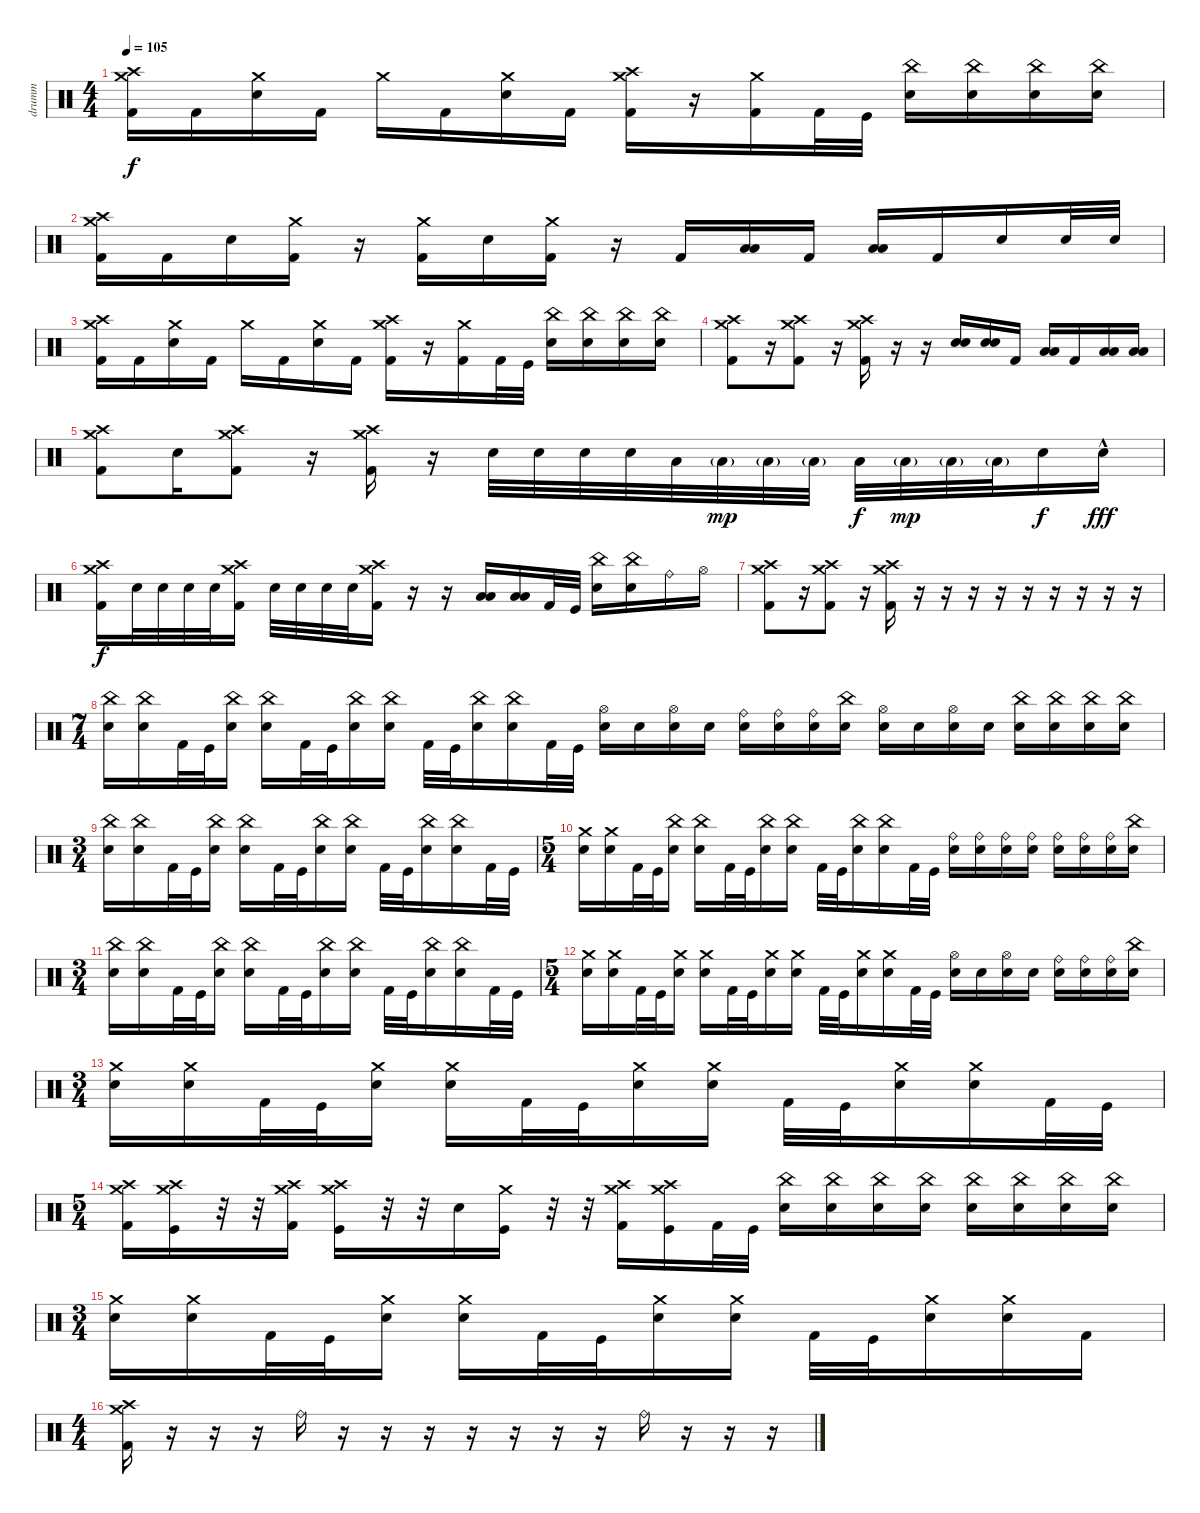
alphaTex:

\track ("drumm" "drumm") {instrument percussion}
\staff
\articulation defaults
\ts (4 4)
\tempo 105
\clef neutral
\ks c
("Kick (hit) 2" "Crash medium (hit)" "Crash high (hit)").16{dy f} "Kick (hit) 2".16 ("Electric Snare (hit)" "Crash medium (hit)").16 "Kick (hit) 2".16 "Crash medium (hit)".16 "Kick (hit) 2".16 ("Electric Snare (hit)" "Crash medium (hit)").16 "Kick (hit) 2".16 ("Kick (hit) 2" "Crash medium (hit)" "Crash high (hit)").16 r.16 ("Kick (hit) 2" "Crash medium (hit)").16 "Kick (hit) 2".32 "Kick (hit)".32 ("Electric Snare (hit)" "China (hit)").16 ("Electric Snare (hit)" "China (hit)").16 ("Electric Snare (hit)" "China (hit)").16 ("Electric Snare (hit)" "China (hit)").16 |
("Kick (hit) 2" "Crash medium (hit)" "Crash high (hit)").16 "Kick (hit) 2".16 "Electric Snare (hit)".16 ("Kick (hit) 2" "Crash medium (hit)").16 r.16 ("Kick (hit) 2" "Crash medium (hit)").16 "Electric Snare (hit)".16 ("Kick (hit) 2" "Crash medium (hit)").16 r.16 "Kick (hit) 2".16 ("Low Tom (hit)" "Low Tom (hit)").16 "Kick (hit) 2".16 ("Low Tom (hit)" "Low Floor Tom (hit)").16 "Kick (hit) 2".16 "Electric Snare (hit)".16 "Electric Snare (hit)".32 "Electric Snare (hit)".32 |
("Kick (hit) 2" "Crash medium (hit)" "Crash high (hit)").16 "Kick (hit) 2".16 ("Electric Snare (hit)" "Crash medium (hit)").16 "Kick (hit) 2".16 "Crash medium (hit)".16 "Kick (hit) 2".16 ("Electric Snare (hit)" "Crash medium (hit)").16 "Kick (hit) 2".16 ("Kick (hit) 2" "Crash medium (hit)" "Crash high (hit)").16 r.16 ("Kick (hit) 2" "Crash medium (hit)").16 "Kick (hit) 2".32 "Kick (hit)".32 ("Electric Snare (hit)" "China (hit)").16 ("Electric Snare (hit)" "China (hit)").16 ("Electric Snare (hit)" "China (hit)").16 ("Electric Snare (hit)" "China (hit)").16 |
("Kick (hit) 2" "Crash medium (hit)" "Crash high (hit)").8 r.16 ("Kick (hit) 2" "Crash medium (hit)" "Crash high (hit)").8 r.16 ("Kick (hit) 2" "Crash medium (hit)" "Crash high (hit)").16 r.16 r.16 ("Electric Snare (hit)" "Electric Snare (hit)").16 ("Electric Snare (hit)" "Electric Snare (hit)").16 "Kick (hit) 2".16 ("Low Tom (hit)" "Low Tom (hit)").16 "Kick (hit) 2".16 ("Low Tom (hit)" "Low Floor Tom (hit)").16 ("Low Tom (hit)" "Low Floor Tom (hit)").16 |
("Kick (hit) 2" "Crash medium (hit)" "Crash high (hit)").8 "Electric Snare (hit)".16 ("Kick (hit) 2" "Crash medium (hit)" "Crash high (hit)").8 r.16 ("Kick (hit) 2" "Crash medium (hit)" "Crash high (hit)").16 r.16 "Electric Snare (hit)".32 "Electric Snare (hit)".32 "Electric Snare (hit)".32 "Electric Snare (hit)".32 "Low Tom (hit)".32 "Low Tom (hit)"{g}.32{dy mp} "Low Tom (hit)"{g}.32 "Low Tom (hit)"{g}.32 "Low Floor Tom (hit)".32{dy f} "Low Floor Tom (hit)"{g}.32{dy mp} "Low Floor Tom (hit)"{g}.32 "Low Floor Tom (hit)"{g}.32 "Electric Snare (hit)".16{dy f} "Electric Snare (hit)"{hac}.16{dy fff} |
("Kick (hit) 2" "Crash medium (hit)" "Crash high (hit)").16{dy f} "Electric Snare (hit)".32 "Electric Snare (hit)".32 "Electric Snare (hit)".32 "Electric Snare (hit)".32 ("Kick (hit) 2" "Crash medium (hit)" "Crash high (hit)").16 "Electric Snare (hit)".32 "Electric Snare (hit)".32 "Electric Snare (hit)".32 "Electric Snare (hit)".32 ("Kick (hit) 2" "Crash medium (hit)" "Crash high (hit)").16 r.16 r.16 ("Low Tom (hit)" "Low Tom (hit)").16 ("Low Tom (hit)" "Low Floor Tom (hit)").16 "Kick (hit) 2".32 "Kick (hit)".32 ("Electric Snare (hit)" "China (hit)").16 ("Electric Snare (hit)" "China (hit)").16 "Ride (bell)".16 "Hi-Hat (open)".16 |
("Kick (hit) 2" "Crash medium (hit)" "Crash high (hit)").8 r.16 ("Kick (hit) 2" "Crash medium (hit)" "Crash high (hit)").8 r.16 ("Kick (hit) 2" "Crash medium (hit)" "Crash high (hit)").16 r.16 r.16 r.16 r.16 r.16 r.16 r.16 r.16 r.16 |
\ts (7 4)
("Electric Snare (hit)" "China (hit)").16 ("Electric Snare (hit)" "China (hit)").16 "Kick (hit) 2".32 "Kick (hit)".32 ("Electric Snare (hit)" "China (hit)").16 ("Electric Snare (hit)" "China (hit)").16 "Kick (hit) 2".32 "Kick (hit)".32 ("Electric Snare (hit)" "China (hit)").16 ("Electric Snare (hit)" "China (hit)").16 "Kick (hit) 2".32 "Kick (hit)".32 ("Electric Snare (hit)" "China (hit)").16 ("Electric Snare (hit)" "China (hit)").16 "Kick (hit) 2".32 "Kick (hit)".32 ("Electric Snare (hit)" "Hi-Hat (open)").16 "Electric Snare (hit)".16 ("Electric Snare (hit)" "Hi-Hat (open)").16 "Electric Snare (hit)".16 ("Electric Snare (hit)" "Ride (bell)").16 ("Electric Snare (hit)" "Ride (bell)").16 ("Electric Snare (hit)" "Ride (bell)").16 ("Electric Snare (hit)" "China (hit)").16 ("Electric Snare (hit)" "Hi-Hat (open)").16 "Electric Snare (hit)".16 ("Electric Snare (hit)" "Hi-Hat (open)").16 "Electric Snare (hit)".16 ("Electric Snare (hit)" "China (hit)").16 ("Electric Snare (hit)" "China (hit)").16 ("Electric Snare (hit)" "China (hit)").16 ("Electric Snare (hit)" "China (hit)").16 |
\ts (3 4)
("Electric Snare (hit)" "China (hit)").16 ("Electric Snare (hit)" "China (hit)").16 "Kick (hit) 2".32 "Kick (hit)".32 ("Electric Snare (hit)" "China (hit)").16 ("Electric Snare (hit)" "China (hit)").16 "Kick (hit) 2".32 "Kick (hit)".32 ("Electric Snare (hit)" "China (hit)").16 ("Electric Snare (hit)" "China (hit)").16 "Kick (hit) 2".32 "Kick (hit)".32 ("Electric Snare (hit)" "China (hit)").16 ("Electric Snare (hit)" "China (hit)").16 "Kick (hit) 2".32 "Kick (hit)".32 |
\ts (5 4)
("Electric Snare (hit)" "Crash medium (hit)").16 ("Electric Snare (hit)" "Crash medium (hit)").16 "Kick (hit) 2".32 "Kick (hit)".32 ("Electric Snare (hit)" "China (hit)").16 ("Electric Snare (hit)" "China (hit)").16 "Kick (hit) 2".32 "Kick (hit)".32 ("Electric Snare (hit)" "China (hit)").16 ("Electric Snare (hit)" "China (hit)").16 "Kick (hit) 2".32 "Kick (hit)".32 ("Electric Snare (hit)" "China (hit)").16 ("Electric Snare (hit)" "China (hit)").16 "Kick (hit) 2".32 "Kick (hit)".32 ("Electric Snare (hit)" "Ride (bell)").16 ("Electric Snare (hit)" "Ride (bell)").16 ("Electric Snare (hit)" "Ride (bell)").16 ("Electric Snare (hit)" "Ride (bell)").16 ("Electric Snare (hit)" "Ride (bell)").16 ("Electric Snare (hit)" "Ride (bell)").16 ("Electric Snare (hit)" "Ride (bell)").16 ("Electric Snare (hit)" "China (hit)").16 |
\ts (3 4)
("Electric Snare (hit)" "China (hit)").16 ("Electric Snare (hit)" "China (hit)").16 "Kick (hit) 2".32 "Kick (hit)".32 ("Electric Snare (hit)" "China (hit)").16 ("Electric Snare (hit)" "China (hit)").16 "Kick (hit) 2".32 "Kick (hit)".32 ("Electric Snare (hit)" "China (hit)").16 ("Electric Snare (hit)" "China (hit)").16 "Kick (hit) 2".32 "Kick (hit)".32 ("Electric Snare (hit)" "China (hit)").16 ("Electric Snare (hit)" "China (hit)").16 "Kick (hit) 2".32 "Kick (hit)".32 |
\ts (5 4)
("Electric Snare (hit)" "Crash medium (hit)").16 ("Electric Snare (hit)" "Crash medium (hit)").16 "Kick (hit) 2".32 "Kick (hit)".32 ("Electric Snare (hit)" "Crash medium (hit)").16 ("Electric Snare (hit)" "Crash medium (hit)").16 "Kick (hit) 2".32 "Kick (hit)".32 ("Electric Snare (hit)" "Crash medium (hit)").16 ("Electric Snare (hit)" "Crash medium (hit)").16 "Kick (hit) 2".32 "Kick (hit)".32 ("Electric Snare (hit)" "Crash medium (hit)").16 ("Electric Snare (hit)" "Crash medium (hit)").16 "Kick (hit) 2".32 "Kick (hit)".32 ("Electric Snare (hit)" "Hi-Hat (open)").16 "Electric Snare (hit)".16 ("Electric Snare (hit)" "Hi-Hat (open)").16 "Electric Snare (hit)".16 ("Electric Snare (hit)" "Ride (bell)").16 ("Electric Snare (hit)" "Ride (bell)").16 ("Electric Snare (hit)" "Ride (bell)").16 ("Electric Snare (hit)" "China (hit)").16 |
\ts (3 4)
("Electric Snare (hit)" "Crash medium (hit)").16 ("Electric Snare (hit)" "Crash medium (hit)").16 "Kick (hit) 2".32 "Kick (hit)".32 ("Electric Snare (hit)" "Crash medium (hit)").16 ("Electric Snare (hit)" "Crash medium (hit)").16 "Kick (hit) 2".32 "Kick (hit)".32 ("Electric Snare (hit)" "Crash medium (hit)").16 ("Electric Snare (hit)" "Crash medium (hit)").16 "Kick (hit) 2".32 "Kick (hit)".32 ("Electric Snare (hit)" "Crash medium (hit)").16 ("Electric Snare (hit)" "Crash medium (hit)").16 "Kick (hit) 2".32 "Kick (hit)".32 |
\ts (5 4)
("Kick (hit) 2" "Crash medium (hit)" "Crash high (hit)").16 ("Kick (hit)" "Crash medium (hit)" "Crash high (hit)").16 r.32 r.32 ("Kick (hit) 2" "Crash medium (hit)" "Crash high (hit)").16 ("Kick (hit)" "Crash medium (hit)" "Crash high (hit)").16 r.32 r.32 "Electric Snare (hit)".16 ("Kick (hit)" "Crash medium (hit)").16 r.32 r.32 ("Kick (hit) 2" "Crash medium (hit)" "Crash high (hit)").16 ("Kick (hit)" "Crash medium (hit)" "Crash high (hit)").16 "Kick (hit) 2".32 "Kick (hit)".32 ("Electric Snare (hit)" "China (hit)").16 ("Electric Snare (hit)" "China (hit)").16 ("Electric Snare (hit)" "China (hit)").16 ("Electric Snare (hit)" "China (hit)").16 ("Electric Snare (hit)" "China (hit)").16 ("Electric Snare (hit)" "China (hit)").16 ("Electric Snare (hit)" "China (hit)").16 ("Electric Snare (hit)" "China (hit)").16 |
\ts (3 4)
("Electric Snare (hit)" "Crash medium (hit)").16 ("Electric Snare (hit)" "Crash medium (hit)").16 "Kick (hit) 2".32 "Kick (hit)".32 ("Electric Snare (hit)" "Crash medium (hit)").16 ("Electric Snare (hit)" "Crash medium (hit)").16 "Kick (hit) 2".32 "Kick (hit)".32 ("Electric Snare (hit)" "Crash medium (hit)").16 ("Electric Snare (hit)" "Crash medium (hit)").16 "Kick (hit) 2".32 "Kick (hit)".32 ("Electric Snare (hit)" "Crash medium (hit)").16 ("Electric Snare (hit)" "Crash medium (hit)").16 "Kick (hit) 2".16 |
\ts (4 4)
("Kick (hit) 2" "Crash medium (hit)" "Crash high (hit)").16 r.16 r.16 r.16 "Ride (bell)".16 r.16 r.16 r.16 r.16 r.16 r.16 r.16 "Ride (bell)".16 r.16 r.16 r.16
